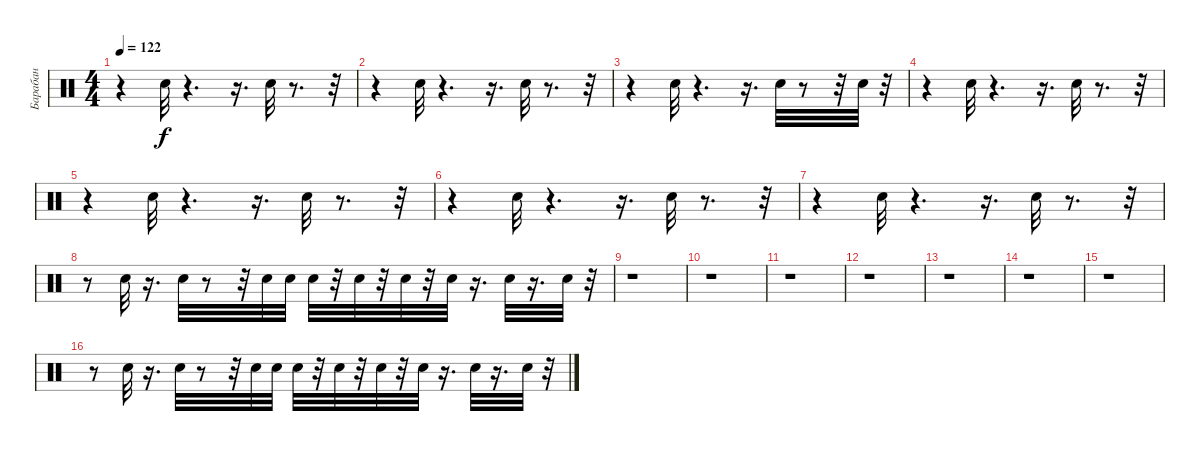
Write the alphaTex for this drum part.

\track ("Барабан" "Барабан") {instrument percussion}
\staff {score}
\articulation defaults
\ts (4 4)
\tempo 122
\clef neutral
\ks c
r.4{dy f} "Snare (hit) 2".32 r.4{d} r.16{d} "Snare (hit) 2".32 r.8{d} r.32 |
r.4 "Snare (hit) 2".32 r.4{d} r.16{d} "Snare (hit) 2".32 r.8{d} r.32 |
r.4 "Snare (hit) 2".32 r.4{d} r.16{d} "Snare (hit) 2".32 r.8 r.32 "Snare (hit) 2".32 r.32 |
r.4 "Snare (hit) 2".32 r.4{d} r.16{d} "Snare (hit) 2".32 r.8{d} r.32 |
r.4 "Snare (hit) 2".32 r.4{d} r.16{d} "Snare (hit) 2".32 r.8{d} r.32 |
r.4 "Snare (hit) 2".32 r.4{d} r.16{d} "Snare (hit) 2".32 r.8{d} r.32 |
r.4 "Snare (hit) 2".32 r.4{d} r.16{d} "Snare (hit) 2".32 r.8{d} r.32 |
r.8 "Snare (hit) 2".32 r.16{d} "Snare (hit) 2".32 r.8 r.32 "Snare (hit) 2".32 "Snare (hit) 2".32 "Snare (hit) 2".32 r.32 "Snare (hit) 2".32 r.32 "Snare (hit) 2".32 r.32 "Snare (hit) 2".32 r.16{d} "Snare (hit) 2".32 r.16{d} "Snare (hit) 2".32 r.32 |
r.1 |
r.1 |
r.1 |
r.1 |
r.1 |
r.1 |
r.1 |
r.8 "Snare (hit) 2".32 r.16{d} "Snare (hit) 2".32 r.8 r.32 "Snare (hit) 2".32 "Snare (hit) 2".32 "Snare (hit) 2".32 r.32 "Snare (hit) 2".32 r.32 "Snare (hit) 2".32 r.32 "Snare (hit) 2".32 r.16{d} "Snare (hit) 2".32 r.16{d} "Snare (hit) 2".32 r.32
